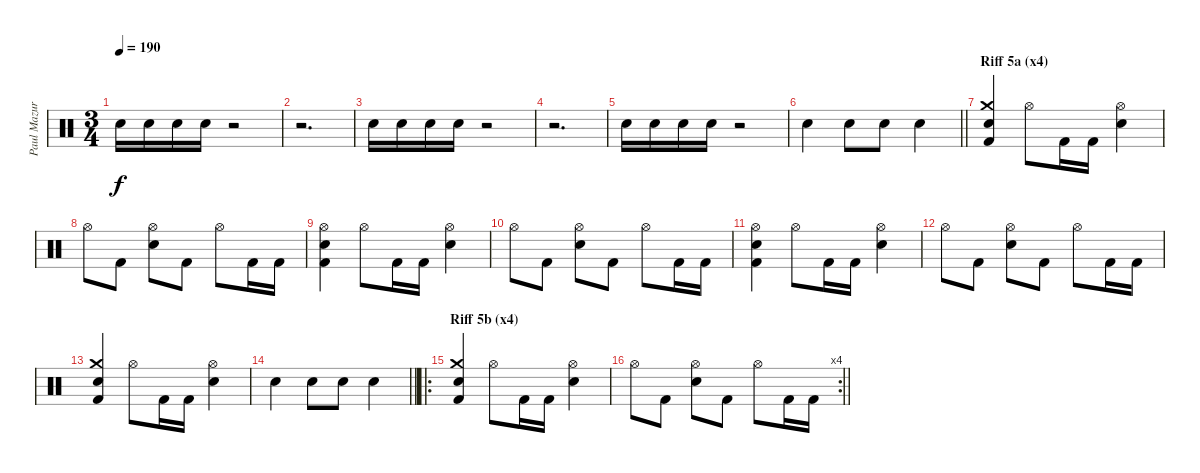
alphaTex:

\track ("Paul Mazurkiewicz" "Paul Mazur") {instrument percussion}
\staff {score}
\articulation defaults
\ts (3 4)
\tempo 190
\clef neutral
\ks c "Electric Snare (hit)".16{dy f} "Electric Snare (hit)".16 "Electric Snare (hit)".16 "Electric Snare (hit)".16
r.2 |
r.2{d} |
"Electric Snare (hit)".16 "Electric Snare (hit)".16 "Electric Snare (hit)".16 "Electric Snare (hit)".16 r.2 |
r.2{d} |
"Electric Snare (hit)".16 "Electric Snare (hit)".16 "Electric Snare (hit)".16 "Electric Snare (hit)".16 r.2 |
\barLineRight lightlight "Electric Snare (hit)".4 "Electric Snare (hit)".8 "Electric Snare (hit)".8 "Electric Snare (hit)".4
|
\section ("" "Riff 5a (x4)")
("Crash medium (hit)" "Electric Snare (hit)" "Kick (hit) 2").4 "Hi-Hat (open)".8 "Kick (hit) 2".16 "Kick (hit) 2".16 ("Hi-Hat (open)" "Electric Snare (hit)").4 |
"Hi-Hat (open)".8 "Kick (hit) 2".8 ("Hi-Hat (open)" "Electric Snare (hit)").8 "Kick (hit) 2".8 "Hi-Hat (open)".8 "Kick (hit) 2".16 "Kick (hit) 2".16 |
("Hi-Hat (open)" "Electric Snare (hit)" "Kick (hit) 2").4 "Hi-Hat (open)".8 "Kick (hit) 2".16 "Kick (hit) 2".16 ("Hi-Hat (open)" "Electric Snare (hit)").4 |
"Hi-Hat (open)".8 "Kick (hit) 2".8 ("Hi-Hat (open)" "Electric Snare (hit)").8 "Kick (hit) 2".8 "Hi-Hat (open)".8 "Kick (hit) 2".16 "Kick (hit) 2".16 |
("Hi-Hat (open)" "Electric Snare (hit)" "Kick (hit) 2").4 "Hi-Hat (open)".8 "Kick (hit) 2".16 "Kick (hit) 2".16 ("Hi-Hat (open)" "Electric Snare (hit)").4 |
"Hi-Hat (open)".8 "Kick (hit) 2".8 ("Hi-Hat (open)" "Electric Snare (hit)").8 "Kick (hit) 2".8 "Hi-Hat (open)".8 "Kick (hit) 2".16 "Kick (hit) 2".16 |
("Crash medium (hit)" "Electric Snare (hit)" "Kick (hit) 2").4 "Hi-Hat (open)".8 "Kick (hit) 2".16 "Kick (hit) 2".16 ("Hi-Hat (open)" "Electric Snare (hit)").4 |
\barLineRight lightlight "Electric Snare (hit)".4 "Electric Snare (hit)".8 "Electric Snare (hit)".8 "Electric Snare (hit)".4
|
\ro
\section ("" "Riff 5b (x4)")
("Crash medium (hit)" "Electric Snare (hit)" "Kick (hit) 2").4 "Hi-Hat (open)".8 "Kick (hit) 2".16 "Kick (hit) 2".16 ("Hi-Hat (open)" "Electric Snare (hit)").4 |
\rc 4
\barLineRight lightlight "Hi-Hat (open)".8 "Kick (hit) 2".8
("Hi-Hat (open)" "Electric Snare (hit)").8 "Kick (hit) 2".8 "Hi-Hat (open)".8 "Kick (hit) 2".16 "Kick (hit) 2".16
